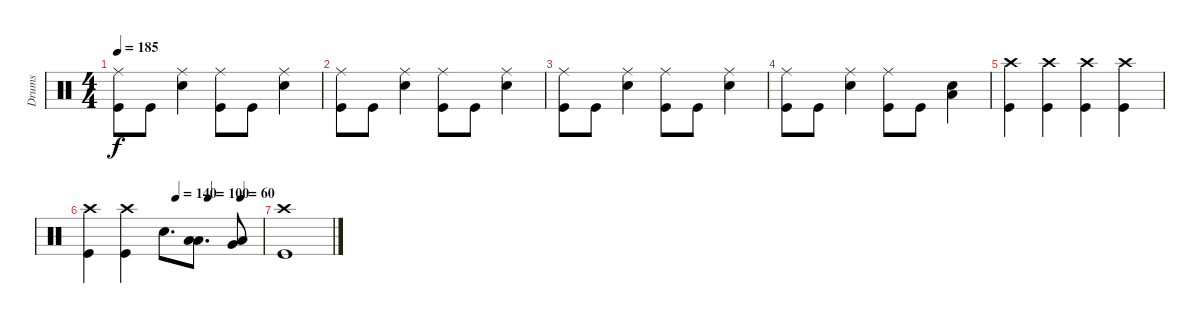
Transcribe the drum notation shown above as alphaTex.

\track ("Drums" "Drums") {instrument percussion}
\staff {score}
\articulation defaults
\ts (4 4)
\tempo 185
\clef neutral
\ks c
("Ride (middle)" "Kick (hit)").8{dy f} "Kick (hit)".8 ("Ride (middle)" "Snare (hit) 2").4 ("Ride (middle)" "Kick (hit)").8 "Kick (hit)".8 ("Ride (middle)" "Snare (hit) 2").4 |
("Ride (middle)" "Kick (hit)").8 "Kick (hit)".8 ("Ride (middle)" "Snare (hit) 2").4 ("Ride (middle)" "Kick (hit)").8 "Kick (hit)".8 ("Ride (middle)" "Snare (hit) 2").4 |
("Ride (middle)" "Kick (hit)").8 "Kick (hit)".8 ("Ride (middle)" "Snare (hit) 2").4 ("Ride (middle)" "Kick (hit)").8 "Kick (hit)".8 ("Ride (middle)" "Snare (hit) 2").4 |
("Ride (middle)" "Kick (hit)").8 "Kick (hit)".8 ("Ride (middle)" "Snare (hit) 2").4 ("Ride (middle)" "Kick (hit)").8 "Kick (hit)".8 ("Snare (hit) 2" "Low Floor Tom (hit)").4 |
("Crash high (hit)" "Kick (hit)").4 ("Crash high (hit)" "Kick (hit)").4 ("Crash high (hit)" "Kick (hit)").4 ("Crash high (hit)" "Kick (hit)").4 |
\tempo (140 0.5)
\tempo (100 0.6875)
\tempo (60 0.875)
("Crash high (hit)" "Kick (hit)").4 ("Crash high (hit)" "Kick (hit)").4 "Snare (hit) 2".8{d} ("Low Tom (hit)" "Low Floor Tom (hit)").8{d} ("Very Low Tom (hit)" "Low Floor Tom (hit)").8 |
("Crash high (hit)" "Kick (hit)").1
